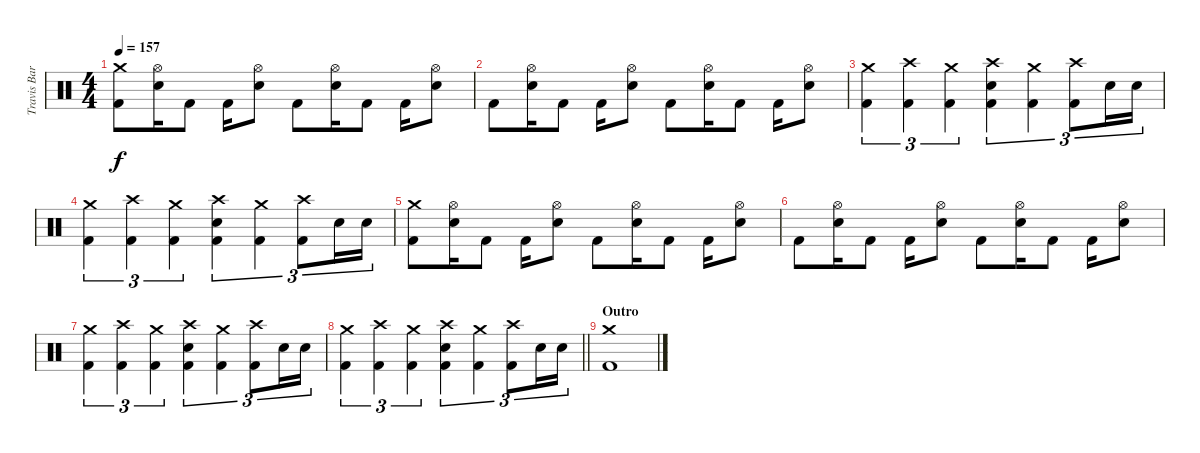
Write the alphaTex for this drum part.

\track ("Travis Barker - Drums" "Travis Bar") {instrument percussion}
\staff {score}
\articulation defaults
\ts (4 4)
\tempo 157
\clef neutral
\ks c
("Crash medium (hit)" "Kick (hit) 2").8{dy f} ("Hi-Hat (open)" "Electric Snare (hit)").16 "Kick (hit) 2".8 "Kick (hit) 2".16 ("Hi-Hat (open)" "Electric Snare (hit)").8 "Kick (hit) 2".8 ("Hi-Hat (open)" "Electric Snare (hit)").16 "Kick (hit) 2".8 "Kick (hit) 2".16 ("Hi-Hat (open)" "Electric Snare (hit)").8 |
"Kick (hit) 2".8 ("Hi-Hat (open)" "Electric Snare (hit)").16 "Kick (hit) 2".8 "Kick (hit) 2".16 ("Hi-Hat (open)" "Electric Snare (hit)").8 "Kick (hit) 2".8 ("Hi-Hat (open)" "Electric Snare (hit)").16 "Kick (hit) 2".8 "Kick (hit) 2".16 ("Hi-Hat (open)" "Electric Snare (hit)").8 |
("Crash medium (hit)" "Kick (hit) 2").4{tu (3 2)} ("Crash high (hit)" "Kick (hit) 2").4{tu (3 2)} ("Crash medium (hit)" "Kick (hit) 2").4{tu (3 2)} ("Crash high (hit)" "Electric Snare (hit)" "Kick (hit) 2").4{tu (3 2)} ("Crash medium (hit)" "Kick (hit) 2").4{tu (3 2)} ("Crash high (hit)" "Kick (hit) 2").8{tu (3 2)} "Electric Snare (hit)".16{tu (3 2)} "Electric Snare (hit)".16{tu (3 2)} |
("Crash medium (hit)" "Kick (hit) 2").4{tu (3 2)} ("Crash high (hit)" "Kick (hit) 2").4{tu (3 2)} ("Crash medium (hit)" "Kick (hit) 2").4{tu (3 2)} ("Crash high (hit)" "Electric Snare (hit)" "Kick (hit) 2").4{tu (3 2)} ("Crash medium (hit)" "Kick (hit) 2").4{tu (3 2)} ("Crash high (hit)" "Kick (hit) 2").8{tu (3 2)} "Electric Snare (hit)".16{tu (3 2)} "Electric Snare (hit)".16{tu (3 2)} |
("Crash medium (hit)" "Kick (hit) 2").8 ("Hi-Hat (open)" "Electric Snare (hit)").16 "Kick (hit) 2".8 "Kick (hit) 2".16 ("Hi-Hat (open)" "Electric Snare (hit)").8 "Kick (hit) 2".8 ("Hi-Hat (open)" "Electric Snare (hit)").16 "Kick (hit) 2".8 "Kick (hit) 2".16 ("Hi-Hat (open)" "Electric Snare (hit)").8 |
"Kick (hit) 2".8 ("Hi-Hat (open)" "Electric Snare (hit)").16 "Kick (hit) 2".8 "Kick (hit) 2".16 ("Hi-Hat (open)" "Electric Snare (hit)").8 "Kick (hit) 2".8 ("Hi-Hat (open)" "Electric Snare (hit)").16 "Kick (hit) 2".8 "Kick (hit) 2".16 ("Hi-Hat (open)" "Electric Snare (hit)").8 |
("Crash medium (hit)" "Kick (hit) 2").4{tu (3 2)} ("Crash high (hit)" "Kick (hit) 2").4{tu (3 2)} ("Crash medium (hit)" "Kick (hit) 2").4{tu (3 2)} ("Crash high (hit)" "Electric Snare (hit)" "Kick (hit) 2").4{tu (3 2)} ("Crash medium (hit)" "Kick (hit) 2").4{tu (3 2)} ("Crash high (hit)" "Kick (hit) 2").8{tu (3 2)} "Electric Snare (hit)".16{tu (3 2)} "Electric Snare (hit)".16{tu (3 2)} |
\barLineRight lightlight
("Crash medium (hit)" "Kick (hit) 2").4{tu (3 2)} ("Crash high (hit)" "Kick (hit) 2").4{tu (3 2)} ("Crash medium (hit)" "Kick (hit) 2").4{tu (3 2)} ("Crash high (hit)" "Electric Snare (hit)" "Kick (hit) 2").4{tu (3 2)} ("Crash medium (hit)" "Kick (hit) 2").4{tu (3 2)} ("Crash high (hit)" "Kick (hit) 2").8{tu (3 2)} "Electric Snare (hit)".16{tu (3 2)} "Electric Snare (hit)".16{tu (3 2)} |
\section ("" "Outro")
("Crash medium (hit)" "Kick (hit) 2").1
